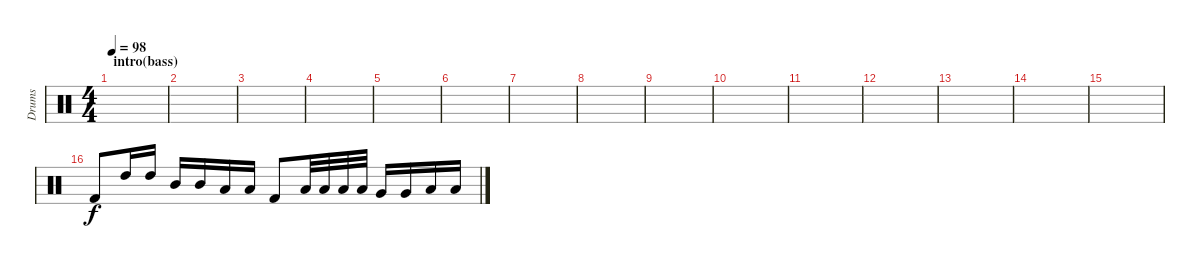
\track ("Drums" "Drums") {instrument percussion}
\staff {score}
\articulation defaults
\ts (4 4)
\section ("" "intro(bass)")
\tempo 98
\clef neutral
\ks c
|
|
|
|
|
|
|
|
|
|
|
|
|
|
|
"Kick (hit) 2".8 "High Tom (hit)".16 "High Tom (hit)".16 "Mid Tom (hit)".16 "Mid Tom (hit)".16 "Low Tom (hit)".16 "Low Tom (hit)".16 "Kick (hit) 2".8 "Low Tom (hit)".32 "Low Tom (hit)".32 "Low Tom (hit)".32 "Low Tom (hit)".32 "Very Low Tom (hit)".16 "Very Low Tom (hit)".16 "Low Floor Tom (hit)".16 "Low Floor Tom (hit)".16
